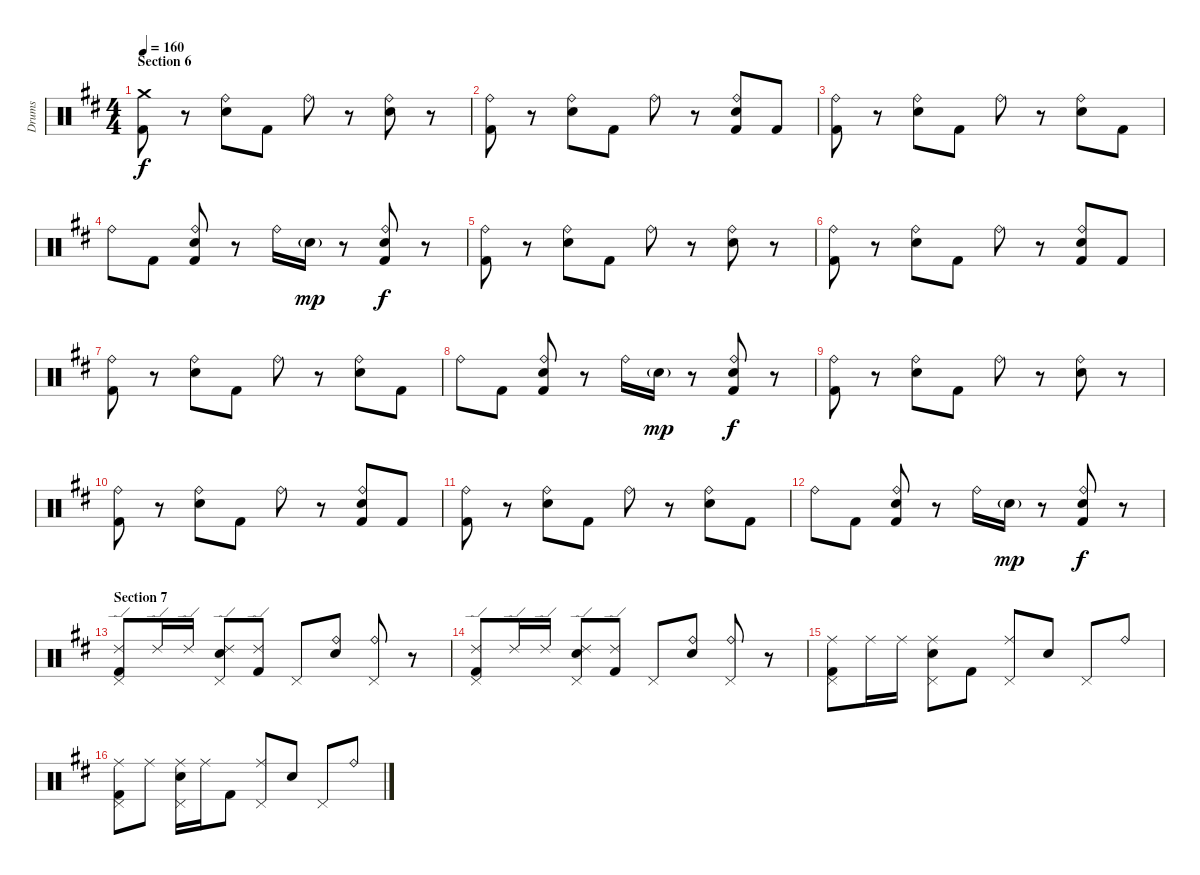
\track ("Drums" "Drums") {instrument percussion}
\staff {score}
\articulation defaults
\ts (4 4)
\section ("" "Section 6")
\tempo 160
\clef neutral
\ks bminor
("Crash medium (hit)" "Kick (hit) 2").8{dy f} r.8 ("Ride (bell)" "Snare (hit) 2").8 "Kick (hit) 2".8 "Ride (bell)".8 r.8 ("Ride (bell)" "Snare (hit) 2").8 r.8 |
("Ride (bell)" "Kick (hit) 2").8 r.8 ("Ride (bell)" "Snare (hit) 2").8 "Kick (hit) 2".8 "Ride (bell)".8 r.8 ("Ride (bell)" "Snare (hit) 2" "Kick (hit) 2").8 "Kick (hit) 2".8 |
("Ride (bell)" "Kick (hit) 2").8 r.8 ("Ride (bell)" "Snare (hit) 2").8 "Kick (hit) 2".8 "Ride (bell)".8 r.8 ("Ride (bell)" "Snare (hit) 2").8 "Kick (hit) 2".8 |
"Ride (bell)".8 "Kick (hit) 2".8 ("Ride (bell)" "Snare (hit) 2" "Kick (hit) 2").8 r.8 "Ride (bell)".16 "Snare (hit) 2"{g}.16{dy mp} r.8 ("Ride (bell)" "Snare (hit) 2" "Kick (hit) 2").8{dy f} r.8 |
("Ride (bell)" "Kick (hit) 2").8 r.8 ("Ride (bell)" "Snare (hit) 2").8 "Kick (hit) 2".8 "Ride (bell)".8 r.8 ("Ride (bell)" "Snare (hit) 2").8 r.8 |
("Ride (bell)" "Kick (hit) 2").8 r.8 ("Ride (bell)" "Snare (hit) 2").8 "Kick (hit) 2".8 "Ride (bell)".8 r.8 ("Ride (bell)" "Snare (hit) 2" "Kick (hit) 2").8 "Kick (hit) 2".8 |
("Ride (bell)" "Kick (hit) 2").8 r.8 ("Ride (bell)" "Snare (hit) 2").8 "Kick (hit) 2".8 "Ride (bell)".8 r.8 ("Ride (bell)" "Snare (hit) 2").8 "Kick (hit) 2".8 |
"Ride (bell)".8 "Kick (hit) 2".8 ("Ride (bell)" "Snare (hit) 2" "Kick (hit) 2").8 r.8 "Ride (bell)".16 "Snare (hit) 2"{g}.16{dy mp} r.8 ("Ride (bell)" "Snare (hit) 2" "Kick (hit) 2").8{dy f} r.8 |
("Ride (bell)" "Kick (hit) 2").8 r.8 ("Ride (bell)" "Snare (hit) 2").8 "Kick (hit) 2".8 "Ride (bell)".8 r.8 ("Ride (bell)" "Snare (hit) 2").8 r.8 |
("Ride (bell)" "Kick (hit) 2").8 r.8 ("Ride (bell)" "Snare (hit) 2").8 "Kick (hit) 2".8 "Ride (bell)".8 r.8 ("Ride (bell)" "Snare (hit) 2" "Kick (hit) 2").8 "Kick (hit) 2".8 |
("Ride (bell)" "Kick (hit) 2").8 r.8 ("Ride (bell)" "Snare (hit) 2").8 "Kick (hit) 2".8 "Ride (bell)".8 r.8 ("Ride (bell)" "Snare (hit) 2").8 "Kick (hit) 2".8 |
"Ride (bell)".8 "Kick (hit) 2".8 ("Ride (bell)" "Snare (hit) 2" "Kick (hit) 2").8 r.8 "Ride (bell)".16 "Snare (hit) 2"{g}.16{dy mp} r.8 ("Ride (bell)" "Snare (hit) 2" "Kick (hit) 2").8{dy f} r.8 |
\section ("" "Section 7")
("Ride (edge) 2" "Pedal Hi-Hat (hit)" "Kick (hit) 2").8 "Ride (edge) 2".16 "Ride (edge) 2".16 ("Ride (edge) 2" "Pedal Hi-Hat (hit)" "Snare (hit) 2").8 ("Ride (edge) 2" "Kick (hit) 2").8 "Pedal Hi-Hat (hit)".8 ("Ride (bell)" "Snare (hit) 2").8 ("Ride (bell)" "Pedal Hi-Hat (hit)").8 r.8 |
("Ride (edge) 2" "Pedal Hi-Hat (hit)" "Kick (hit) 2").8 "Ride (edge) 2".16 "Ride (edge) 2".16 ("Ride (edge) 2" "Pedal Hi-Hat (hit)" "Snare (hit) 2").8 ("Ride (edge) 2" "Kick (hit) 2").8 "Pedal Hi-Hat (hit)".8 ("Ride (bell)" "Snare (hit) 2").8 ("Ride (bell)" "Pedal Hi-Hat (hit)").8 r.8 |
("Ride (middle)" "Pedal Hi-Hat (hit)" "Kick (hit) 2").8 "Ride (middle)".16 "Ride (middle)".16 ("Ride (middle)" "Pedal Hi-Hat (hit)" "Snare (hit) 2").8 "Kick (hit) 2".8 ("Ride (middle)" "Pedal Hi-Hat (hit)").8 "Snare (hit) 2".8 "Pedal Hi-Hat (hit)".8 "Ride (bell)".8 |
("Ride (middle)" "Pedal Hi-Hat (hit)" "Kick (hit) 2").8 "Ride (middle)".8 ("Ride (middle)" "Pedal Hi-Hat (hit)" "Snare (hit) 2").16 "Ride (middle)".16 "Kick (hit) 2".8 ("Ride (middle)" "Pedal Hi-Hat (hit)").8 "Snare (hit) 2".8 "Pedal Hi-Hat (hit)".8 "Ride (bell)".8
